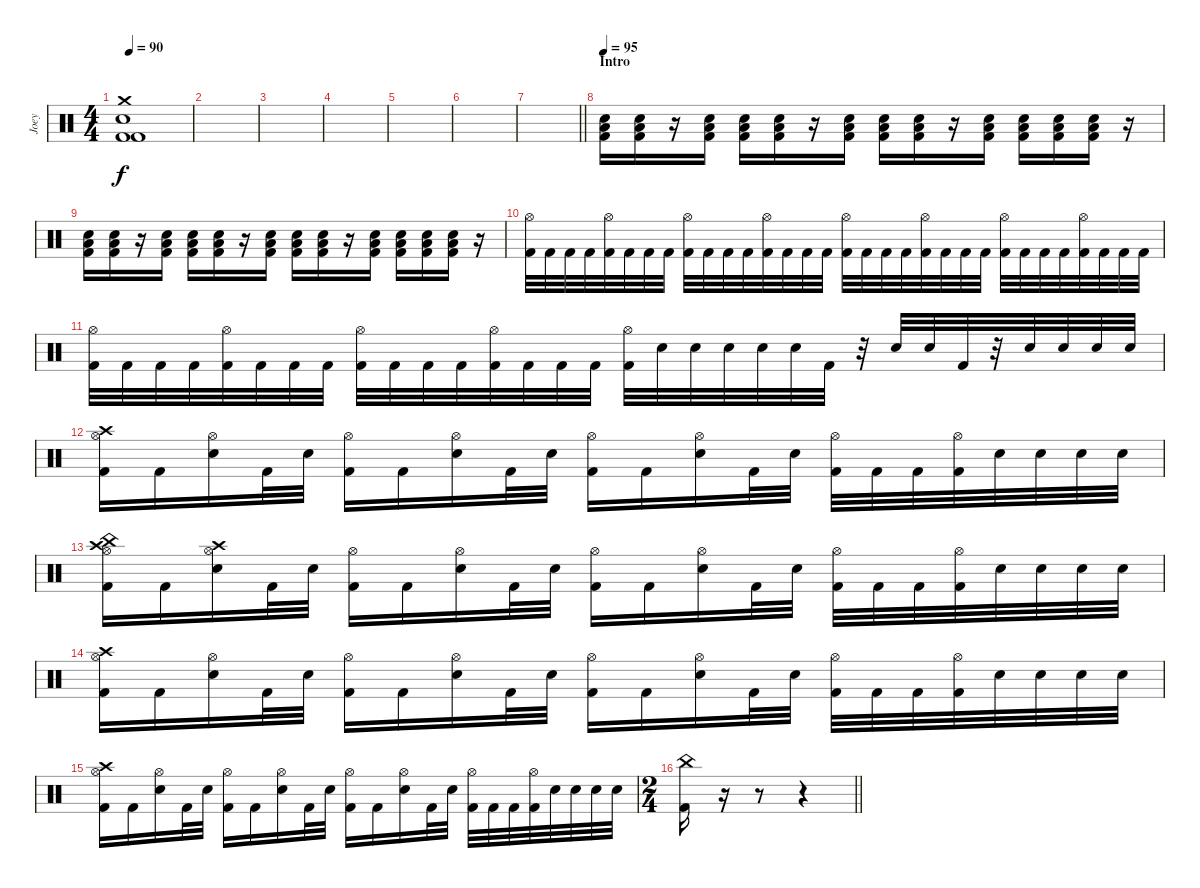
\track ("Joey" "Joey") {instrument percussion}
\staff {score}
\articulation defaults
\ts (4 4)
\tempo 90
\clef neutral
\ks c
("Electric Snare (hit)" "Crash medium (hit)" "Kick (hit) 2" "Kick (hit) 2").1{dy f} |
|
|
|
|
|
\barLineRight lightlight
|
\section ("" "Intro")
\tempo 95
("Low Floor Tom (hit)" "Electric Snare (hit)" "Kick (hit) 2").16 ("Low Floor Tom (hit)" "Electric Snare (hit)" "Kick (hit) 2").16 r.16 ("Low Floor Tom (hit)" "Electric Snare (hit)" "Kick (hit) 2").16 ("Low Floor Tom (hit)" "Electric Snare (hit)" "Kick (hit) 2").16 ("Low Floor Tom (hit)" "Electric Snare (hit)" "Kick (hit) 2").16 r.16 ("Low Floor Tom (hit)" "Electric Snare (hit)" "Kick (hit) 2").16 ("Low Floor Tom (hit)" "Electric Snare (hit)" "Kick (hit) 2").16 ("Low Floor Tom (hit)" "Electric Snare (hit)" "Kick (hit) 2").16 r.16 ("Low Floor Tom (hit)" "Electric Snare (hit)" "Kick (hit) 2").16 ("Low Floor Tom (hit)" "Electric Snare (hit)" "Kick (hit) 2").16 ("Low Floor Tom (hit)" "Electric Snare (hit)" "Kick (hit) 2").16 ("Low Floor Tom (hit)" "Electric Snare (hit)" "Kick (hit) 2").16 r.16 |
("Low Floor Tom (hit)" "Electric Snare (hit)" "Kick (hit) 2").16 ("Low Floor Tom (hit)" "Electric Snare (hit)" "Kick (hit) 2").16 r.16 ("Low Floor Tom (hit)" "Electric Snare (hit)" "Kick (hit) 2").16 ("Low Floor Tom (hit)" "Electric Snare (hit)" "Kick (hit) 2").16 ("Low Floor Tom (hit)" "Electric Snare (hit)" "Kick (hit) 2").16 r.16 ("Low Floor Tom (hit)" "Electric Snare (hit)" "Kick (hit) 2").16 ("Low Floor Tom (hit)" "Electric Snare (hit)" "Kick (hit) 2").16 ("Low Floor Tom (hit)" "Electric Snare (hit)" "Kick (hit) 2").16 r.16 ("Low Floor Tom (hit)" "Electric Snare (hit)" "Kick (hit) 2").16 ("Low Floor Tom (hit)" "Electric Snare (hit)" "Kick (hit) 2").16 ("Low Floor Tom (hit)" "Electric Snare (hit)" "Kick (hit) 2").16 ("Low Floor Tom (hit)" "Electric Snare (hit)" "Kick (hit) 2").16 r.16 |
("Hi-Hat (open)" "Kick (hit) 2").32 "Kick (hit) 2".32 "Kick (hit) 2".32 "Kick (hit) 2".32 ("Hi-Hat (open)" "Kick (hit) 2").32 "Kick (hit) 2".32 "Kick (hit) 2".32 "Kick (hit) 2".32 ("Hi-Hat (open)" "Kick (hit) 2").32 "Kick (hit) 2".32 "Kick (hit) 2".32 "Kick (hit) 2".32 ("Hi-Hat (open)" "Kick (hit) 2").32 "Kick (hit) 2".32 "Kick (hit) 2".32 "Kick (hit) 2".32 ("Hi-Hat (open)" "Kick (hit) 2").32 "Kick (hit) 2".32 "Kick (hit) 2".32 "Kick (hit) 2".32 ("Hi-Hat (open)" "Kick (hit) 2").32 "Kick (hit) 2".32 "Kick (hit) 2".32 "Kick (hit) 2".32 ("Hi-Hat (open)" "Kick (hit) 2").32 "Kick (hit) 2".32 "Kick (hit) 2".32 "Kick (hit) 2".32 ("Hi-Hat (open)" "Kick (hit) 2").32 "Kick (hit) 2".32 "Kick (hit) 2".32 "Kick (hit) 2".32 |
("Hi-Hat (open)" "Kick (hit) 2").32 "Kick (hit) 2".32 "Kick (hit) 2".32 "Kick (hit) 2".32 ("Hi-Hat (open)" "Kick (hit) 2").32 "Kick (hit) 2".32 "Kick (hit) 2".32 "Kick (hit) 2".32 ("Hi-Hat (open)" "Kick (hit) 2").32 "Kick (hit) 2".32 "Kick (hit) 2".32 "Kick (hit) 2".32 ("Hi-Hat (open)" "Kick (hit) 2").32 "Kick (hit) 2".32 "Kick (hit) 2".32 "Kick (hit) 2".32 ("Hi-Hat (open)" "Kick (hit) 2").32 "Electric Snare (hit)".32 "Electric Snare (hit)".32 "Electric Snare (hit)".32 "Electric Snare (hit)".32 "Electric Snare (hit)".32 "Kick (hit) 2".32 r.32 "Electric Snare (hit)".32 "Electric Snare (hit)".32 "Kick (hit) 2".32 r.32 "Electric Snare (hit)".32 "Electric Snare (hit)".32 "Electric Snare (hit)".32 "Electric Snare (hit)".32 |
("Crash high (hit)" "Hi-Hat (open)" "Kick (hit) 2").16 "Kick (hit) 2".16 ("Hi-Hat (open)" "Electric Snare (hit)").16 "Kick (hit) 2".32 "Electric Snare (hit)".32 ("Hi-Hat (open)" "Kick (hit) 2").16 "Kick (hit) 2".16 ("Hi-Hat (open)" "Electric Snare (hit)").16 "Kick (hit) 2".32 "Electric Snare (hit)".32 ("Hi-Hat (open)" "Kick (hit) 2").16 "Kick (hit) 2".16 ("Hi-Hat (open)" "Electric Snare (hit)").16 "Kick (hit) 2".32 "Electric Snare (hit)".32 ("Hi-Hat (open)" "Kick (hit) 2").32 "Kick (hit) 2".32 "Kick (hit) 2".32 ("Hi-Hat (open)" "Kick (hit) 2").32 "Electric Snare (hit)".32 "Electric Snare (hit)".32 "Electric Snare (hit)".32 "Electric Snare (hit)".32 |
("China (hit)" "Crash high (hit)" "Hi-Hat (open)" "Kick (hit) 2").16 "Kick (hit) 2".16 ("Crash high (hit)" "Hi-Hat (open)" "Electric Snare (hit)").16 "Kick (hit) 2".32 "Electric Snare (hit)".32 ("Hi-Hat (open)" "Kick (hit) 2").16 "Kick (hit) 2".16 ("Hi-Hat (open)" "Electric Snare (hit)").16 "Kick (hit) 2".32 "Electric Snare (hit)".32 ("Hi-Hat (open)" "Kick (hit) 2").16 "Kick (hit) 2".16 ("Hi-Hat (open)" "Electric Snare (hit)").16 "Kick (hit) 2".32 "Electric Snare (hit)".32 ("Hi-Hat (open)" "Kick (hit) 2").32 "Kick (hit) 2".32 "Kick (hit) 2".32 ("Hi-Hat (open)" "Kick (hit) 2").32 "Electric Snare (hit)".32 "Electric Snare (hit)".32 "Electric Snare (hit)".32 "Electric Snare (hit)".32 |
("Crash high (hit)" "Hi-Hat (open)" "Kick (hit) 2").16 "Kick (hit) 2".16 ("Hi-Hat (open)" "Electric Snare (hit)").16 "Kick (hit) 2".32 "Electric Snare (hit)".32 ("Hi-Hat (open)" "Kick (hit) 2").16 "Kick (hit) 2".16 ("Hi-Hat (open)" "Electric Snare (hit)").16 "Kick (hit) 2".32 "Electric Snare (hit)".32 ("Hi-Hat (open)" "Kick (hit) 2").16 "Kick (hit) 2".16 ("Hi-Hat (open)" "Electric Snare (hit)").16 "Kick (hit) 2".32 "Electric Snare (hit)".32 ("Hi-Hat (open)" "Kick (hit) 2").32 "Kick (hit) 2".32 "Kick (hit) 2".32 ("Hi-Hat (open)" "Kick (hit) 2").32 "Electric Snare (hit)".32 "Electric Snare (hit)".32 "Electric Snare (hit)".32 "Electric Snare (hit)".32 |
("Crash high (hit)" "Hi-Hat (open)" "Kick (hit) 2").16 "Kick (hit) 2".16 ("Hi-Hat (open)" "Electric Snare (hit)").16 "Kick (hit) 2".32 "Electric Snare (hit)".32 ("Hi-Hat (open)" "Kick (hit) 2").16 "Kick (hit) 2".16 ("Hi-Hat (open)" "Electric Snare (hit)").16 "Kick (hit) 2".32 "Electric Snare (hit)".32 ("Hi-Hat (open)" "Kick (hit) 2").16 "Kick (hit) 2".16 ("Hi-Hat (open)" "Electric Snare (hit)").16 "Kick (hit) 2".32 "Electric Snare (hit)".32 ("Hi-Hat (open)" "Kick (hit) 2").32 "Kick (hit) 2".32 "Kick (hit) 2".32 ("Hi-Hat (open)" "Kick (hit) 2").32 "Electric Snare (hit)".32 "Electric Snare (hit)".32 "Electric Snare (hit)".32 "Electric Snare (hit)".32 |
\ts (2 4)
\barLineRight lightlight
("China (hit)" "Kick (hit) 2").16 r.16 r.8 r.4
